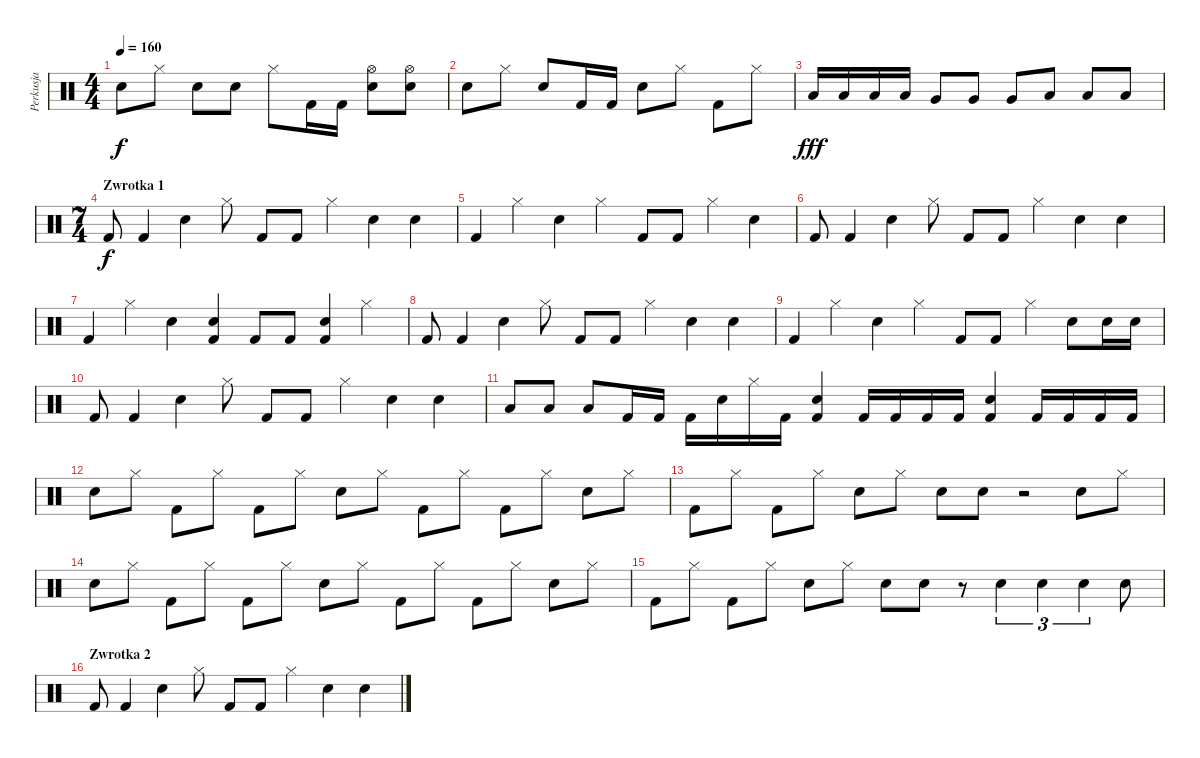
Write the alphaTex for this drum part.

\track ("Perkusja" "Perkusja") {instrument percussion}
\staff {score}
\articulation defaults
\ts (4 4)
\tempo 160
\clef neutral
\ks c "Snare (hit) 2".8{dy f} "Hi-Hat (closed)".8 "Snare (hit) 2".8 "Snare (hit) 2".8 "Hi-Hat (closed)".8 "Kick (hit) 2".16 "Kick (hit) 2".16
("Snare (hit) 2" "Hi-Hat (open)").8 ("Snare (hit) 2" "Hi-Hat (open)").8 |
"Snare (hit) 2".8 "Hi-Hat (closed)".8 "Snare (hit) 2".8 "Kick (hit) 2".16 "Kick (hit) 2".16 "Snare (hit) 2".8 "Hi-Hat (closed)".8 "Kick (hit) 2".8 "Hi-Hat (closed)".8 |
"Low Floor Tom (hit)".16{dy fff} "Low Floor Tom (hit)".16 "Low Floor Tom (hit)".16 "Low Floor Tom (hit)".16 "Very Low Tom (hit)".8 "Very Low Tom (hit)".8 "Very Low Tom (hit)".8 "Low Tom (hit)".8 "Low Tom (hit)".8 "Low Tom (hit)".8 |
\ts (7 4)
\section ("" "Zwrotka 1")
"Kick (hit) 2".8{dy f} "Kick (hit) 2".4 "Snare (hit) 2".4 "Hi-Hat (closed)".8 "Kick (hit) 2".8 "Kick (hit) 2".8 "Hi-Hat (closed)".4 "Snare (hit) 2".4 "Snare (hit) 2".4 |
"Kick (hit) 2".4 "Hi-Hat (closed)".4 "Snare (hit) 2".4 "Hi-Hat (closed)".4 "Kick (hit) 2".8 "Kick (hit) 2".8 "Hi-Hat (closed)".4 "Snare (hit) 2".4 |
"Kick (hit) 2".8 "Kick (hit) 2".4 "Snare (hit) 2".4 "Hi-Hat (closed)".8 "Kick (hit) 2".8 "Kick (hit) 2".8 "Hi-Hat (closed)".4 "Snare (hit) 2".4 "Snare (hit) 2".4 |
"Kick (hit) 2".4 "Hi-Hat (closed)".4 "Snare (hit) 2".4 ("Snare (hit) 2" "Kick (hit) 2").4 "Kick (hit) 2".8 "Kick (hit) 2".8 ("Snare (hit) 2" "Kick (hit) 2").4 "Hi-Hat (closed)".4 |
"Kick (hit) 2".8 "Kick (hit) 2".4 "Snare (hit) 2".4 "Hi-Hat (closed)".8 "Kick (hit) 2".8 "Kick (hit) 2".8 "Hi-Hat (closed)".4 "Snare (hit) 2".4 "Snare (hit) 2".4 |
"Kick (hit) 2".4 "Hi-Hat (closed)".4 "Snare (hit) 2".4 "Hi-Hat (closed)".4 "Kick (hit) 2".8 "Kick (hit) 2".8 "Hi-Hat (closed)".4 "Snare (hit) 2".8 "Snare (hit) 2".16 "Snare (hit) 2".16 |
"Kick (hit) 2".8 "Kick (hit) 2".4 "Snare (hit) 2".4 "Hi-Hat (closed)".8 "Kick (hit) 2".8 "Kick (hit) 2".8 "Hi-Hat (closed)".4 "Snare (hit) 2".4 "Snare (hit) 2".4 |
"Low Floor Tom (hit)".8 "Low Floor Tom (hit)".8 "Low Floor Tom (hit)".8 "Kick (hit) 2".16 "Kick (hit) 2".16 "Kick (hit) 2".16 "Snare (hit) 2".16 "Hi-Hat (closed)".16 "Kick (hit) 2".16 ("Snare (hit) 2" "Kick (hit) 2").4 "Kick (hit) 2".16 "Kick (hit) 2".16 "Kick (hit) 2".16 "Kick (hit) 2".16 ("Snare (hit) 2" "Kick (hit) 2").4 "Kick (hit) 2".16 "Kick (hit) 2".16 "Kick (hit) 2".16 "Kick (hit) 2".16 |
"Snare (hit) 2".8 "Hi-Hat (closed)".8 "Kick (hit) 2".8 "Hi-Hat (closed)".8 "Kick (hit) 2".8 "Hi-Hat (closed)".8 "Snare (hit) 2".8 "Hi-Hat (closed)".8 "Kick (hit) 2".8 "Hi-Hat (closed)".8 "Kick (hit) 2".8 "Hi-Hat (closed)".8 "Snare (hit) 2".8 "Hi-Hat (closed)".8 |
"Kick (hit) 2".8 "Hi-Hat (closed)".8 "Kick (hit) 2".8 "Hi-Hat (closed)".8 "Snare (hit) 2".8 "Hi-Hat (closed)".8 "Snare (hit) 2".8 "Snare (hit) 2".8 r.2 "Snare (hit) 2".8 "Hi-Hat (closed)".8 |
"Snare (hit) 2".8 "Hi-Hat (closed)".8 "Kick (hit) 2".8 "Hi-Hat (closed)".8 "Kick (hit) 2".8 "Hi-Hat (closed)".8 "Snare (hit) 2".8 "Hi-Hat (closed)".8 "Kick (hit) 2".8 "Hi-Hat (closed)".8 "Kick (hit) 2".8 "Hi-Hat (closed)".8 "Snare (hit) 2".8 "Hi-Hat (closed)".8 |
"Kick (hit) 2".8 "Hi-Hat (closed)".8 "Kick (hit) 2".8 "Hi-Hat (closed)".8 "Snare (hit) 2".8 "Hi-Hat (closed)".8 "Snare (hit) 2".8 "Snare (hit) 2".8 r.8 "Snare (hit) 2".4{tu (3 2)} "Snare (hit) 2".4{tu (3 2)} "Snare (hit) 2".4{tu (3 2)} "Snare (hit) 2".8 |
\section ("" "Zwrotka 2")
"Kick (hit) 2".8 "Kick (hit) 2".4 "Snare (hit) 2".4 "Hi-Hat (closed)".8 "Kick (hit) 2".8 "Kick (hit) 2".8 "Hi-Hat (closed)".4 "Snare (hit) 2".4 "Snare (hit) 2".4
